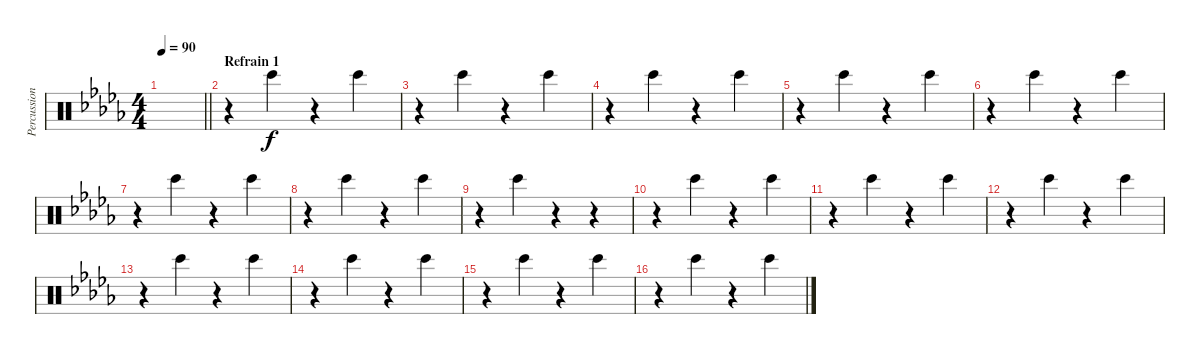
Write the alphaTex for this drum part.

\track ("Percussions" "Percussion") {instrument percussion}
\staff {score}
\articulation defaults
\ts (4 4)
\tempo 90
\clef neutral
\barLineRight lightlight
\ks db
|
\section ("" "Refrain 1")
r.4 "Bongo High (hit)".4 r.4 "Bongo High (hit)".4 |
r.4 "Bongo High (hit)".4 r.4 "Bongo High (hit)".4 |
r.4 "Bongo High (hit)".4 r.4 "Bongo High (hit)".4 |
r.4 "Bongo High (hit)".4 r.4 "Bongo High (hit)".4 |
r.4 "Bongo High (hit)".4 r.4 "Bongo High (hit)".4 |
r.4 "Bongo High (hit)".4 r.4 "Bongo High (hit)".4 |
r.4 "Bongo High (hit)".4 r.4 "Bongo High (hit)".4 |
r.4 "Bongo High (hit)".4 r.4 r.4 |
r.4 "Bongo High (hit)".4 r.4 "Bongo High (hit)".4 |
r.4 "Bongo High (hit)".4 r.4 "Bongo High (hit)".4 |
r.4 "Bongo High (hit)".4 r.4 "Bongo High (hit)".4 |
r.4 "Bongo High (hit)".4 r.4 "Bongo High (hit)".4 |
r.4 "Bongo High (hit)".4 r.4 "Bongo High (hit)".4 |
r.4 "Bongo High (hit)".4 r.4 "Bongo High (hit)".4 |
r.4 "Bongo High (hit)".4 r.4 "Bongo High (hit)".4
